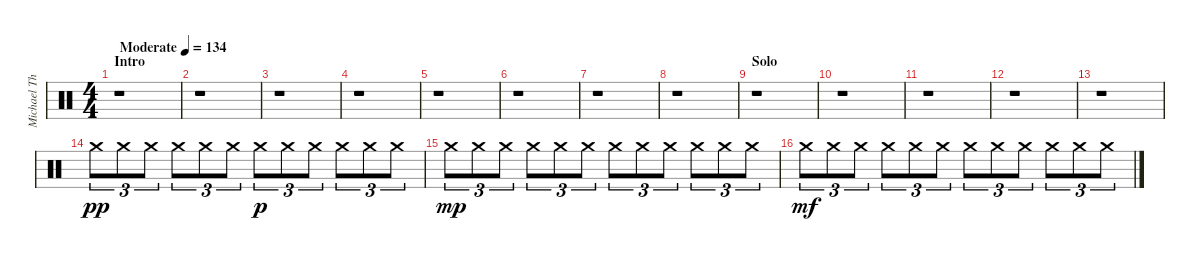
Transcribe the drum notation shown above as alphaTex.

\track ("Michael Thomas" "Michael Th") {instrument percussion}
\staff {score}
\articulation defaults
\ts (4 4)
\section ("" "Intro")
\tempo (134 "Moderate")
\clef neutral
\ks c
r.1{dy pp} |
r.1 |
r.1 |
r.1 |
r.1 |
r.1 |
r.1 |
r.1 |
\section ("" "Solo")
r.1 |
r.1 |
r.1 |
r.1 |
r.1 |
"Crash medium (hit)".8{tu (3 2)} "Crash medium (hit)".8{tu (3 2)} "Crash medium (hit)".8{tu (3 2)} "Crash medium (hit)".8{tu (3 2)} "Crash medium (hit)".8{tu (3 2)} "Crash medium (hit)".8{tu (3 2)} "Crash medium (hit)".8{tu (3 2) dy p} "Crash medium (hit)".8{tu (3 2)} "Crash medium (hit)".8{tu (3 2)} "Crash medium (hit)".8{tu (3 2)} "Crash medium (hit)".8{tu (3 2)} "Crash medium (hit)".8{tu (3 2)} |
"Crash medium (hit)".8{tu (3 2) dy mp} "Crash medium (hit)".8{tu (3 2)} "Crash medium (hit)".8{tu (3 2)} "Crash medium (hit)".8{tu (3 2)} "Crash medium (hit)".8{tu (3 2)} "Crash medium (hit)".8{tu (3 2)} "Crash medium (hit)".8{tu (3 2)} "Crash medium (hit)".8{tu (3 2)} "Crash medium (hit)".8{tu (3 2)} "Crash medium (hit)".8{tu (3 2)} "Crash medium (hit)".8{tu (3 2)} "Crash medium (hit)".8{tu (3 2)} |
"Crash medium (hit)".8{tu (3 2) dy mf} "Crash medium (hit)".8{tu (3 2)} "Crash medium (hit)".8{tu (3 2)} "Crash medium (hit)".8{tu (3 2)} "Crash medium (hit)".8{tu (3 2)} "Crash medium (hit)".8{tu (3 2)} "Crash medium (hit)".8{tu (3 2)} "Crash medium (hit)".8{tu (3 2)} "Crash medium (hit)".8{tu (3 2)} "Crash medium (hit)".8{tu (3 2)} "Crash medium (hit)".8{tu (3 2)} "Crash medium (hit)".8{tu (3 2)}
